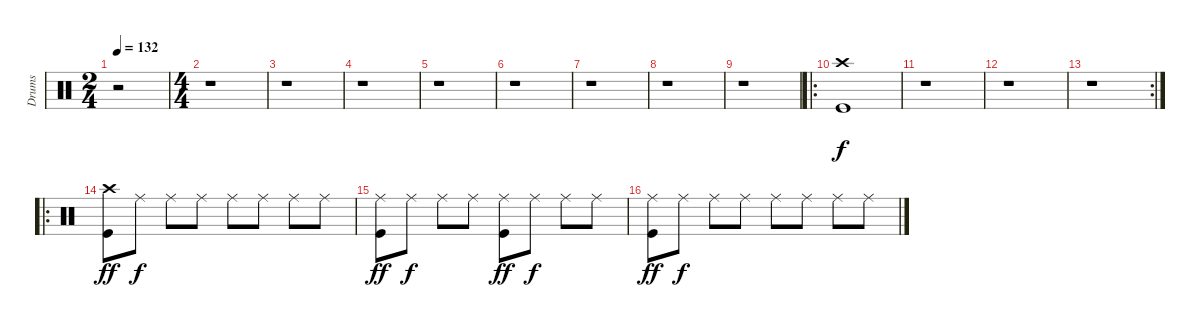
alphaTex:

\track ("Drums" "Drums") {instrument percussion}
\staff {score}
\articulation defaults
\ts (2 4)
\tempo 132
\clef neutral
\ks c
r.2{dy f volume 15} |
\ts (4 4)
r.1 |
r.1 |
r.1 |
r.1 |
r.1 |
r.1 |
r.1 |
r.1 |
\ro
("Crash high (hit)" "Kick (hit)").1 |
r.1 |
r.1 |
\rc 2
r.1 |
\ro
("Crash high (hit)" "Kick (hit)").8{dy ff} "Ride (middle)".8{dy f} "Ride (middle)".8 "Ride (middle)".8 "Ride (middle)".8 "Ride (middle)".8 "Ride (middle)".8 "Ride (middle)".8 |
("Ride (middle)" "Kick (hit)").8{dy ff} "Ride (middle)".8{dy f} "Ride (middle)".8 "Ride (middle)".8 ("Ride (middle)" "Kick (hit)").8{dy ff} "Ride (middle)".8{dy f} "Ride (middle)".8 "Ride (middle)".8 |
("Ride (middle)" "Kick (hit)").8{dy ff} "Ride (middle)".8{dy f} "Ride (middle)".8 "Ride (middle)".8 "Ride (middle)".8 "Ride (middle)".8 "Ride (middle)".8 "Ride (middle)".8
